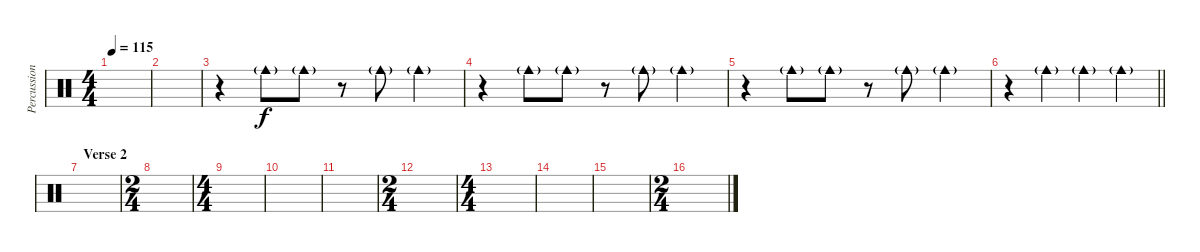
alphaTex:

\track ("Percussioni" "Percussion") {instrument percussion}
\staff {score}
\articulation defaults
\ts (4 4)
\tempo 115
\clef neutral
\ks c
|
|
r.4 "Cowbell medium (hit)"{g}.8 "Cowbell medium (hit)"{g}.8 r.8 "Cowbell medium (hit)"{g}.8 "Cowbell medium (hit)"{g}.4 |
r.4 "Cowbell medium (hit)"{g}.8 "Cowbell medium (hit)"{g}.8 r.8 "Cowbell medium (hit)"{g}.8 "Cowbell medium (hit)"{g}.4 |
r.4 "Cowbell medium (hit)"{g}.8 "Cowbell medium (hit)"{g}.8 r.8 "Cowbell medium (hit)"{g}.8 "Cowbell medium (hit)"{g}.4 |
\barLineRight lightlight
r.4 "Cowbell medium (hit)"{g}.4 "Cowbell medium (hit)"{g}.4 "Cowbell medium (hit)"{g}.4 |
\section ("" "Verse 2")
|
\ts (2 4)
|
\ts (4 4)
|
|
|
\ts (2 4)
|
\ts (4 4)
|
|
|
\ts (2 4)
